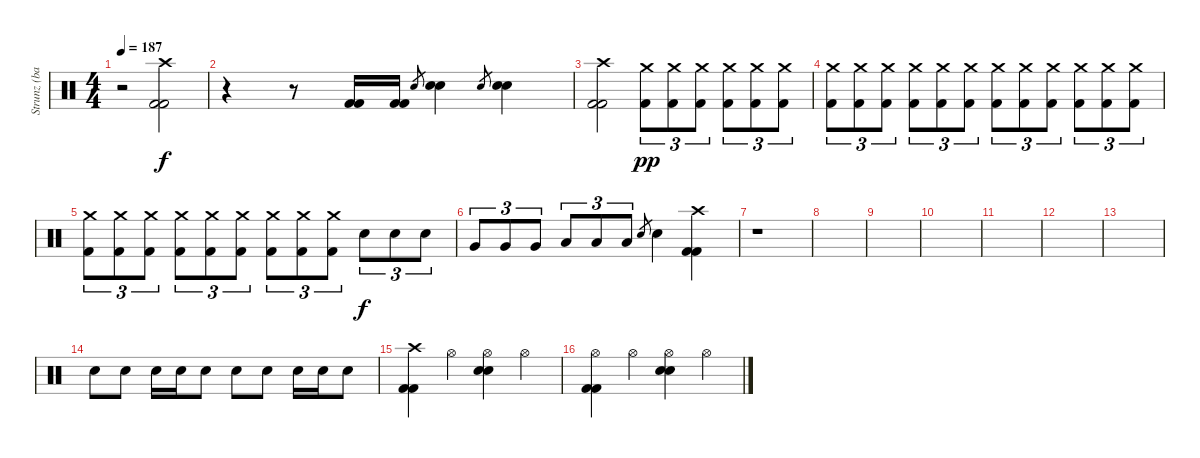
\track ("Strunz (bateria)" "Strunz (ba") {instrument percussion}
\staff {score}
\articulation defaults
\ts (4 4)
\tempo 187
\clef neutral
\ks c
r.2{dy f} ("Crash high (hit)" "Kick (hit) 2" "Kick (hit) 2").2 |
r.4 r.8 ("Kick (hit) 2" "Kick (hit) 2").16 ("Kick (hit) 2" "Kick (hit) 2").16 "Snare (hit) 2".8{gr} ("Snare (hit) 2" "Snare (hit) 2").4 "Snare (hit) 2".8{gr} ("Snare (hit) 2" "Snare (hit) 2").4 |
("Crash high (hit)" "Kick (hit) 2" "Kick (hit) 2").2 ("Crash medium (hit)" "Kick (hit) 2").8{tu (3 2) dy pp} ("Crash medium (hit)" "Kick (hit) 2").8{tu (3 2)} ("Crash medium (hit)" "Kick (hit) 2").8{tu (3 2)} ("Crash medium (hit)" "Kick (hit) 2").8{tu (3 2)} ("Crash medium (hit)" "Kick (hit) 2").8{tu (3 2)} ("Crash medium (hit)" "Kick (hit) 2").8{tu (3 2)} |
("Crash medium (hit)" "Kick (hit) 2").8{tu (3 2)} ("Crash medium (hit)" "Kick (hit) 2").8{tu (3 2)} ("Crash medium (hit)" "Kick (hit) 2").8{tu (3 2)} ("Crash medium (hit)" "Kick (hit) 2").8{tu (3 2)} ("Crash medium (hit)" "Kick (hit) 2").8{tu (3 2)} ("Crash medium (hit)" "Kick (hit) 2").8{tu (3 2)} ("Crash medium (hit)" "Kick (hit) 2").8{tu (3 2)} ("Crash medium (hit)" "Kick (hit) 2").8{tu (3 2)} ("Crash medium (hit)" "Kick (hit) 2").8{tu (3 2)} ("Crash medium (hit)" "Kick (hit) 2").8{tu (3 2)} ("Crash medium (hit)" "Kick (hit) 2").8{tu (3 2)} ("Crash medium (hit)" "Kick (hit) 2").8{tu (3 2)} |
("Crash medium (hit)" "Kick (hit) 2").8{tu (3 2)} ("Crash medium (hit)" "Kick (hit) 2").8{tu (3 2)} ("Crash medium (hit)" "Kick (hit) 2").8{tu (3 2)} ("Crash medium (hit)" "Kick (hit) 2").8{tu (3 2)} ("Crash medium (hit)" "Kick (hit) 2").8{tu (3 2)} ("Crash medium (hit)" "Kick (hit) 2").8{tu (3 2)} ("Crash medium (hit)" "Kick (hit) 2").8{tu (3 2)} ("Crash medium (hit)" "Kick (hit) 2").8{tu (3 2)} ("Crash medium (hit)" "Kick (hit) 2").8{tu (3 2)} "Snare (hit) 2".8{tu (3 2) dy f} "Snare (hit) 2".8{tu (3 2)} "Snare (hit) 2".8{tu (3 2)} |
"Very Low Tom (hit)".8{tu (3 2)} "Very Low Tom (hit)".8{tu (3 2)} "Very Low Tom (hit)".8{tu (3 2)} "Low Floor Tom (hit)".8{tu (3 2)} "Low Floor Tom (hit)".8{tu (3 2)} "Low Floor Tom (hit)".8{tu (3 2)} "Snare (hit) 2".8{gr} "Snare (hit) 2".4 ("Crash high (hit)" "Kick (hit) 2" "Kick (hit) 2").4 |
r.1 |
|
|
|
|
|
|
"Snare (hit) 2".8 "Snare (hit) 2".8 "Snare (hit) 2".16 "Snare (hit) 2".16 "Snare (hit) 2".8 "Snare (hit) 2".8 "Snare (hit) 2".8 "Snare (hit) 2".16 "Snare (hit) 2".16 "Snare (hit) 2".8 |
("Crash high (hit)" "Kick (hit) 2" "Kick (hit) 2").4 "Hi-Hat (open)".4 ("Hi-Hat (open)" "Snare (hit) 2" "Snare (hit) 2").4 "Hi-Hat (open)".4 |
("Hi-Hat (open)" "Kick (hit) 2" "Kick (hit) 2").4 "Hi-Hat (open)".4 ("Hi-Hat (open)" "Snare (hit) 2" "Snare (hit) 2").4 "Hi-Hat (open)".4
